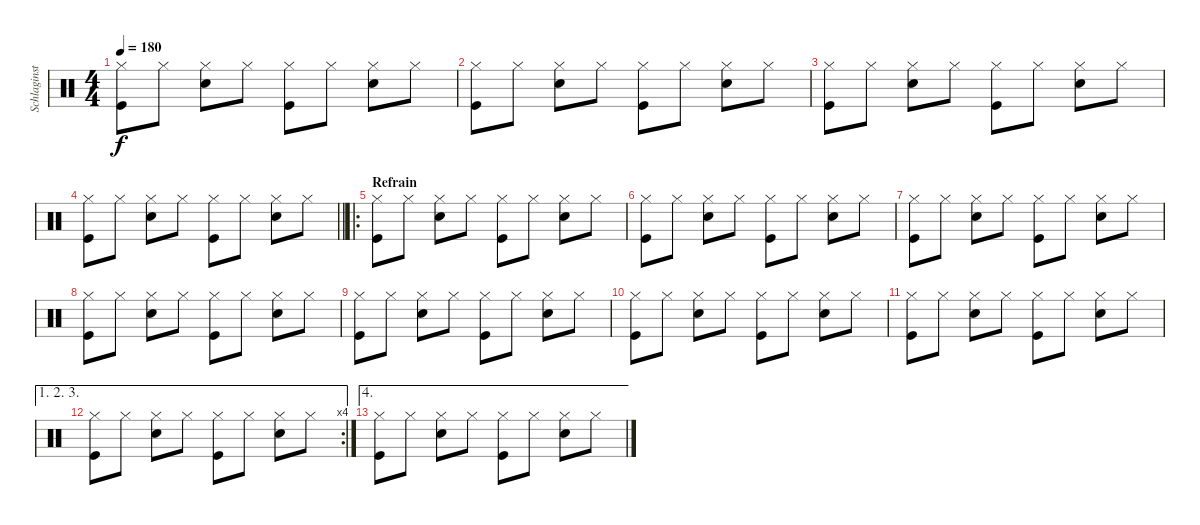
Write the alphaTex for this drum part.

\track ("Schlaginstrumente - Auswahl" "Schlaginst") {instrument percussion}
\staff {score}
\articulation defaults
\ts (4 4)
\tempo 180
\clef neutral
\ks c
("Hi-Hat (closed)" "Kick (hit)").8{dy f} "Hi-Hat (closed)".8 ("Hi-Hat (closed)" "Snare (hit) 2").8 "Hi-Hat (closed)".8 ("Hi-Hat (closed)" "Kick (hit)").8 "Hi-Hat (closed)".8 ("Hi-Hat (closed)" "Snare (hit) 2").8 "Hi-Hat (closed)".8 |
("Hi-Hat (closed)" "Kick (hit)").8 "Hi-Hat (closed)".8 ("Hi-Hat (closed)" "Snare (hit) 2").8 "Hi-Hat (closed)".8 ("Hi-Hat (closed)" "Kick (hit)").8 "Hi-Hat (closed)".8 ("Hi-Hat (closed)" "Snare (hit) 2").8 "Hi-Hat (closed)".8 |
("Hi-Hat (closed)" "Kick (hit)").8 "Hi-Hat (closed)".8 ("Hi-Hat (closed)" "Snare (hit) 2").8 "Hi-Hat (closed)".8 ("Hi-Hat (closed)" "Kick (hit)").8 "Hi-Hat (closed)".8 ("Hi-Hat (closed)" "Snare (hit) 2").8 "Hi-Hat (closed)".8 |
\barLineRight lightlight
("Hi-Hat (closed)" "Kick (hit)").8 "Hi-Hat (closed)".8 ("Hi-Hat (closed)" "Snare (hit) 2").8 "Hi-Hat (closed)".8 ("Hi-Hat (closed)" "Kick (hit)").8 "Hi-Hat (closed)".8 ("Hi-Hat (closed)" "Snare (hit) 2").8 "Hi-Hat (closed)".8 |
\ro
\section ("" "Refrain")
("Hi-Hat (closed)" "Kick (hit)").8 "Hi-Hat (closed)".8 ("Hi-Hat (closed)" "Snare (hit) 2").8 "Hi-Hat (closed)".8 ("Hi-Hat (closed)" "Kick (hit)").8 "Hi-Hat (closed)".8 ("Hi-Hat (closed)" "Snare (hit) 2").8 "Hi-Hat (closed)".8 |
("Hi-Hat (closed)" "Kick (hit)").8 "Hi-Hat (closed)".8 ("Hi-Hat (closed)" "Snare (hit) 2").8 "Hi-Hat (closed)".8 ("Hi-Hat (closed)" "Kick (hit)").8 "Hi-Hat (closed)".8 ("Hi-Hat (closed)" "Snare (hit) 2").8 "Hi-Hat (closed)".8 |
("Hi-Hat (closed)" "Kick (hit)").8 "Hi-Hat (closed)".8 ("Hi-Hat (closed)" "Snare (hit) 2").8 "Hi-Hat (closed)".8 ("Hi-Hat (closed)" "Kick (hit)").8 "Hi-Hat (closed)".8 ("Hi-Hat (closed)" "Snare (hit) 2").8 "Hi-Hat (closed)".8 |
("Hi-Hat (closed)" "Kick (hit)").8 "Hi-Hat (closed)".8 ("Hi-Hat (closed)" "Snare (hit) 2").8 "Hi-Hat (closed)".8 ("Hi-Hat (closed)" "Kick (hit)").8 "Hi-Hat (closed)".8 ("Hi-Hat (closed)" "Snare (hit) 2").8 "Hi-Hat (closed)".8 |
("Hi-Hat (closed)" "Kick (hit)").8 "Hi-Hat (closed)".8 ("Hi-Hat (closed)" "Snare (hit) 2").8 "Hi-Hat (closed)".8 ("Hi-Hat (closed)" "Kick (hit)").8 "Hi-Hat (closed)".8 ("Hi-Hat (closed)" "Snare (hit) 2").8 "Hi-Hat (closed)".8 |
("Hi-Hat (closed)" "Kick (hit)").8 "Hi-Hat (closed)".8 ("Hi-Hat (closed)" "Snare (hit) 2").8 "Hi-Hat (closed)".8 ("Hi-Hat (closed)" "Kick (hit)").8 "Hi-Hat (closed)".8 ("Hi-Hat (closed)" "Snare (hit) 2").8 "Hi-Hat (closed)".8 |
("Hi-Hat (closed)" "Kick (hit)").8 "Hi-Hat (closed)".8 ("Hi-Hat (closed)" "Snare (hit) 2").8 "Hi-Hat (closed)".8 ("Hi-Hat (closed)" "Kick (hit)").8 "Hi-Hat (closed)".8 ("Hi-Hat (closed)" "Snare (hit) 2").8 "Hi-Hat (closed)".8 |
\ae (1 2 3)
\rc 4
("Hi-Hat (closed)" "Kick (hit)").8 "Hi-Hat (closed)".8 ("Hi-Hat (closed)" "Snare (hit) 2").8 "Hi-Hat (closed)".8 ("Hi-Hat (closed)" "Kick (hit)").8 "Hi-Hat (closed)".8 ("Hi-Hat (closed)" "Snare (hit) 2").8 "Hi-Hat (closed)".8 |
\ae 4
("Hi-Hat (closed)" "Kick (hit)").8 "Hi-Hat (closed)".8 ("Hi-Hat (closed)" "Snare (hit) 2").8 "Hi-Hat (closed)".8 ("Hi-Hat (closed)" "Kick (hit)").8 "Hi-Hat (closed)".8 ("Hi-Hat (closed)" "Snare (hit) 2").8 "Hi-Hat (closed)".8
